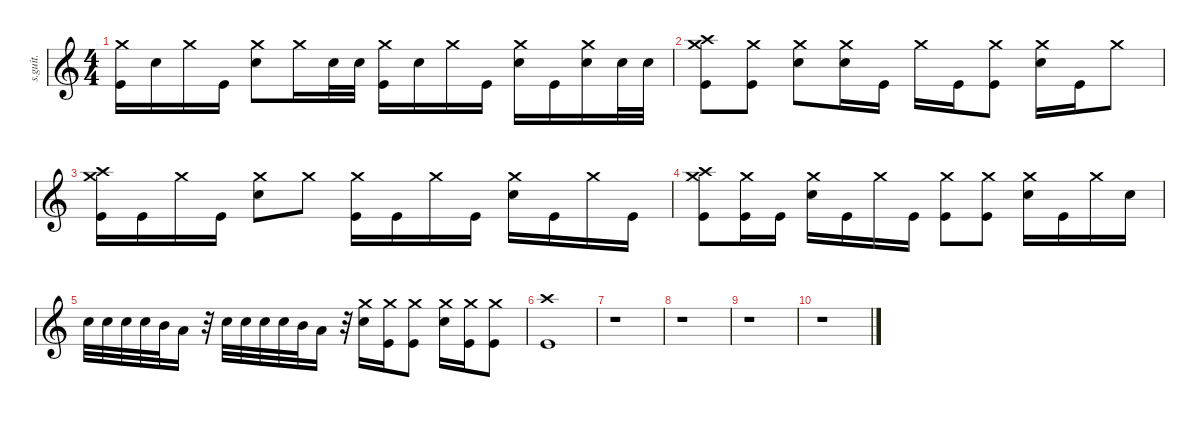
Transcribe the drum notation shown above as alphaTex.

\defaultSystemsLayout 4
\hideDynamics
\bracketExtendMode nobrackets
\track ("Abe Cunningham" "s.guit.") {instrument percussion}
\staff {score}
\articulation defaults
\ts (4 4)
\tempo (93 hide)
\clef g2
\ks c
("Kick (hit)" "Crash medium (hit)").16{lyrics (0 "") lyrics (1 "") lyrics (2 "") lyrics (3 "") lyrics (4 "") dy fff} "Snare (hit) 2".16{lyrics (0 "") lyrics (1 "") lyrics (2 "") lyrics (3 "") lyrics (4 "")} "Crash medium (hit)".16{lyrics (0 "") lyrics (1 "") lyrics (2 "") lyrics (3 "") lyrics (4 "")} "Kick (hit)".16{lyrics (0 "") lyrics (1 "") lyrics (2 "") lyrics (3 "") lyrics (4 "")} ("Snare (hit) 2" "Crash medium (hit)").8{lyrics (0 "") lyrics (1 "") lyrics (2 "") lyrics (3 "") lyrics (4 "")} "Crash medium (hit)".16{lyrics (0 "") lyrics (1 "") lyrics (2 "") lyrics (3 "") lyrics (4 "")} "Snare (hit) 2".32{lyrics (0 "") lyrics (1 "") lyrics (2 "") lyrics (3 "") lyrics (4 "")} "Snare (hit) 2".32{lyrics (0 "") lyrics (1 "") lyrics (2 "") lyrics (3 "") lyrics (4 "")} ("Crash medium (hit)" "Kick (hit)").16{lyrics (0 "") lyrics (1 "") lyrics (2 "") lyrics (3 "") lyrics (4 "")} "Snare (hit) 2".16{lyrics (0 "") lyrics (1 "") lyrics (2 "") lyrics (3 "") lyrics (4 "")} "Crash medium (hit)".16{lyrics (0 "") lyrics (1 "") lyrics (2 "") lyrics (3 "") lyrics (4 "")} "Kick (hit)".16{lyrics (0 "") lyrics (1 "") lyrics (2 "") lyrics (3 "") lyrics (4 "")} ("Crash medium (hit)" "Snare (hit) 2").16{lyrics (0 "") lyrics (1 "") lyrics (2 "") lyrics (3 "") lyrics (4 "")} "Kick (hit)".16{lyrics (0 "") lyrics (1 "") lyrics (2 "") lyrics (3 "") lyrics (4 "")} ("Crash medium (hit)" "Snare (hit) 2").16{lyrics (0 "") lyrics (1 "") lyrics (2 "") lyrics (3 "") lyrics (4 "")} "Snare (hit) 2".32{lyrics (0 "") lyrics (1 "") lyrics (2 "") lyrics (3 "") lyrics (4 "")} "Snare (hit) 2".32{lyrics (0 "") lyrics (1 "") lyrics (2 "") lyrics (3 "") lyrics (4 "")} |
("Kick (hit)" "Crash medium (hit)" "Crash high (hit)").8{lyrics (0 "") lyrics (1 "") lyrics (2 "") lyrics (3 "") lyrics (4 "")} ("Crash medium (hit)" "Kick (hit)").8{lyrics (0 "") lyrics (1 "") lyrics (2 "") lyrics (3 "") lyrics (4 "")} ("Snare (hit) 2" "Crash medium (hit)").8{lyrics (0 "") lyrics (1 "") lyrics (2 "") lyrics (3 "") lyrics (4 "")} ("Crash medium (hit)" "Snare (hit) 2").16{lyrics (0 "") lyrics (1 "") lyrics (2 "") lyrics (3 "") lyrics (4 "")} "Kick (hit)".16{lyrics (0 "") lyrics (1 "") lyrics (2 "") lyrics (3 "") lyrics (4 "")} "Crash medium (hit)".16{lyrics (0 "") lyrics (1 "") lyrics (2 "") lyrics (3 "") lyrics (4 "")} "Kick (hit)".16{lyrics (0 "") lyrics (1 "") lyrics (2 "") lyrics (3 "") lyrics (4 "")} ("Crash medium (hit)" "Kick (hit)").8{lyrics (0 "") lyrics (1 "") lyrics (2 "") lyrics (3 "") lyrics (4 "")} ("Crash medium (hit)" "Snare (hit) 2").16{lyrics (0 "") lyrics (1 "") lyrics (2 "") lyrics (3 "") lyrics (4 "")} "Kick (hit)".16{lyrics (0 "") lyrics (1 "") lyrics (2 "") lyrics (3 "") lyrics (4 "")} "Crash medium (hit)".8{lyrics (0 "") lyrics (1 "") lyrics (2 "") lyrics (3 "") lyrics (4 "")} |
("Kick (hit)" "Crash medium (hit)" "Crash high (hit)").16{lyrics (0 "") lyrics (1 "") lyrics (2 "") lyrics (3 "") lyrics (4 "")} "Kick (hit)".16{lyrics (0 "") lyrics (1 "") lyrics (2 "") lyrics (3 "") lyrics (4 "")} "Crash medium (hit)".16{lyrics (0 "") lyrics (1 "") lyrics (2 "") lyrics (3 "") lyrics (4 "")} "Kick (hit)".16{lyrics (0 "") lyrics (1 "") lyrics (2 "") lyrics (3 "") lyrics (4 "")} ("Snare (hit) 2" "Crash medium (hit)").8{lyrics (0 "") lyrics (1 "") lyrics (2 "") lyrics (3 "") lyrics (4 "")} "Crash medium (hit)".8{lyrics (0 "") lyrics (1 "") lyrics (2 "") lyrics (3 "") lyrics (4 "")} ("Crash medium (hit)" "Kick (hit)").16{lyrics (0 "") lyrics (1 "") lyrics (2 "") lyrics (3 "") lyrics (4 "")} "Kick (hit)".16{lyrics (0 "") lyrics (1 "") lyrics (2 "") lyrics (3 "") lyrics (4 "")} "Crash medium (hit)".16{lyrics (0 "") lyrics (1 "") lyrics (2 "") lyrics (3 "") lyrics (4 "")} "Kick (hit)".16{lyrics (0 "") lyrics (1 "") lyrics (2 "") lyrics (3 "") lyrics (4 "")} ("Crash medium (hit)" "Snare (hit) 2").16{lyrics (0 "") lyrics (1 "") lyrics (2 "") lyrics (3 "") lyrics (4 "")} "Kick (hit)".16{lyrics (0 "") lyrics (1 "") lyrics (2 "") lyrics (3 "") lyrics (4 "")} "Crash medium (hit)".16{lyrics (0 "") lyrics (1 "") lyrics (2 "") lyrics (3 "") lyrics (4 "")} "Kick (hit)".16{lyrics (0 "") lyrics (1 "") lyrics (2 "") lyrics (3 "") lyrics (4 "")} |
("Kick (hit)" "Crash medium (hit)" "Crash high (hit)").8{lyrics (0 "") lyrics (1 "") lyrics (2 "") lyrics (3 "") lyrics (4 "")} ("Crash medium (hit)" "Kick (hit)").16{lyrics (0 "") lyrics (1 "") lyrics (2 "") lyrics (3 "") lyrics (4 "")} "Kick (hit)".16{lyrics (0 "") lyrics (1 "") lyrics (2 "") lyrics (3 "") lyrics (4 "")} ("Crash medium (hit)" "Snare (hit) 2").16{lyrics (0 "") lyrics (1 "") lyrics (2 "") lyrics (3 "") lyrics (4 "")} "Kick (hit)".16{lyrics (0 "") lyrics (1 "") lyrics (2 "") lyrics (3 "") lyrics (4 "")} "Crash medium (hit)".16{lyrics (0 "") lyrics (1 "") lyrics (2 "") lyrics (3 "") lyrics (4 "")} "Kick (hit)".16{lyrics (0 "") lyrics (1 "") lyrics (2 "") lyrics (3 "") lyrics (4 "")} ("Crash medium (hit)" "Kick (hit)").8{lyrics (0 "") lyrics (1 "") lyrics (2 "") lyrics (3 "") lyrics (4 "")} ("Crash medium (hit)" "Kick (hit)").8{lyrics (0 "") lyrics (1 "") lyrics (2 "") lyrics (3 "") lyrics (4 "")} ("Crash medium (hit)" "Snare (hit) 2").16{lyrics (0 "") lyrics (1 "") lyrics (2 "") lyrics (3 "") lyrics (4 "")} "Kick (hit)".16{lyrics (0 "") lyrics (1 "") lyrics (2 "") lyrics (3 "") lyrics (4 "")} "Crash medium (hit)".16{lyrics (0 "") lyrics (1 "") lyrics (2 "") lyrics (3 "") lyrics (4 "")} "Snare (hit) 2".16{lyrics (0 "") lyrics (1 "") lyrics (2 "") lyrics (3 "") lyrics (4 "")} |
"Snare (hit) 2".32{lyrics (0 "") lyrics (1 "") lyrics (2 "") lyrics (3 "") lyrics (4 "")} "Snare (hit) 2".32{lyrics (0 "") lyrics (1 "") lyrics (2 "") lyrics (3 "") lyrics (4 "")} "Snare (hit) 2".32{lyrics (0 "") lyrics (1 "") lyrics (2 "") lyrics (3 "") lyrics (4 "")} "Snare (hit) 2".32{lyrics (0 "") lyrics (1 "") lyrics (2 "") lyrics (3 "") lyrics (4 "")} "Mid Tom (hit)".32{lyrics (0 "") lyrics (1 "") lyrics (2 "") lyrics (3 "") lyrics (4 "")} "Low Tom (hit)".16{lyrics (0 "") lyrics (1 "") lyrics (2 "") lyrics (3 "") lyrics (4 "")} r.32 "Snare (hit) 2".32{lyrics (0 "") lyrics (1 "") lyrics (2 "") lyrics (3 "") lyrics (4 "")} "Snare (hit) 2".32{lyrics (0 "") lyrics (1 "") lyrics (2 "") lyrics (3 "") lyrics (4 "")} "Snare (hit) 2".32{lyrics (0 "") lyrics (1 "") lyrics (2 "") lyrics (3 "") lyrics (4 "")} "Snare (hit) 2".32{lyrics (0 "") lyrics (1 "") lyrics (2 "") lyrics (3 "") lyrics (4 "")} "Mid Tom (hit)".32{lyrics (0 "") lyrics (1 "") lyrics (2 "") lyrics (3 "") lyrics (4 "")} "Low Tom (hit)".16{lyrics (0 "") lyrics (1 "") lyrics (2 "") lyrics (3 "") lyrics (4 "")} r.32 ("Crash medium (hit)" "Snare (hit) 2").16{lyrics (0 "") lyrics (1 "") lyrics (2 "") lyrics (3 "") lyrics (4 "")} ("Crash medium (hit)" "Kick (hit)").16{lyrics (0 "") lyrics (1 "") lyrics (2 "") lyrics (3 "") lyrics (4 "")} ("Crash medium (hit)" "Kick (hit)").8{lyrics (0 "") lyrics (1 "") lyrics (2 "") lyrics (3 "") lyrics (4 "")} ("Crash medium (hit)" "Snare (hit) 2").16{lyrics (0 "") lyrics (1 "") lyrics (2 "") lyrics (3 "") lyrics (4 "")} ("Crash medium (hit)" "Kick (hit)").16{lyrics (0 "") lyrics (1 "") lyrics (2 "") lyrics (3 "") lyrics (4 "")} ("Crash medium (hit)" "Kick (hit)").8{lyrics (0 "") lyrics (1 "") lyrics (2 "") lyrics (3 "") lyrics (4 "")} |
("Crash high (hit)" "Kick (hit)").1{lyrics (0 "") lyrics (1 "") lyrics (2 "") lyrics (3 "") lyrics (4 "")} |
r.1 |
r.1 |
r.1 |
r.1
